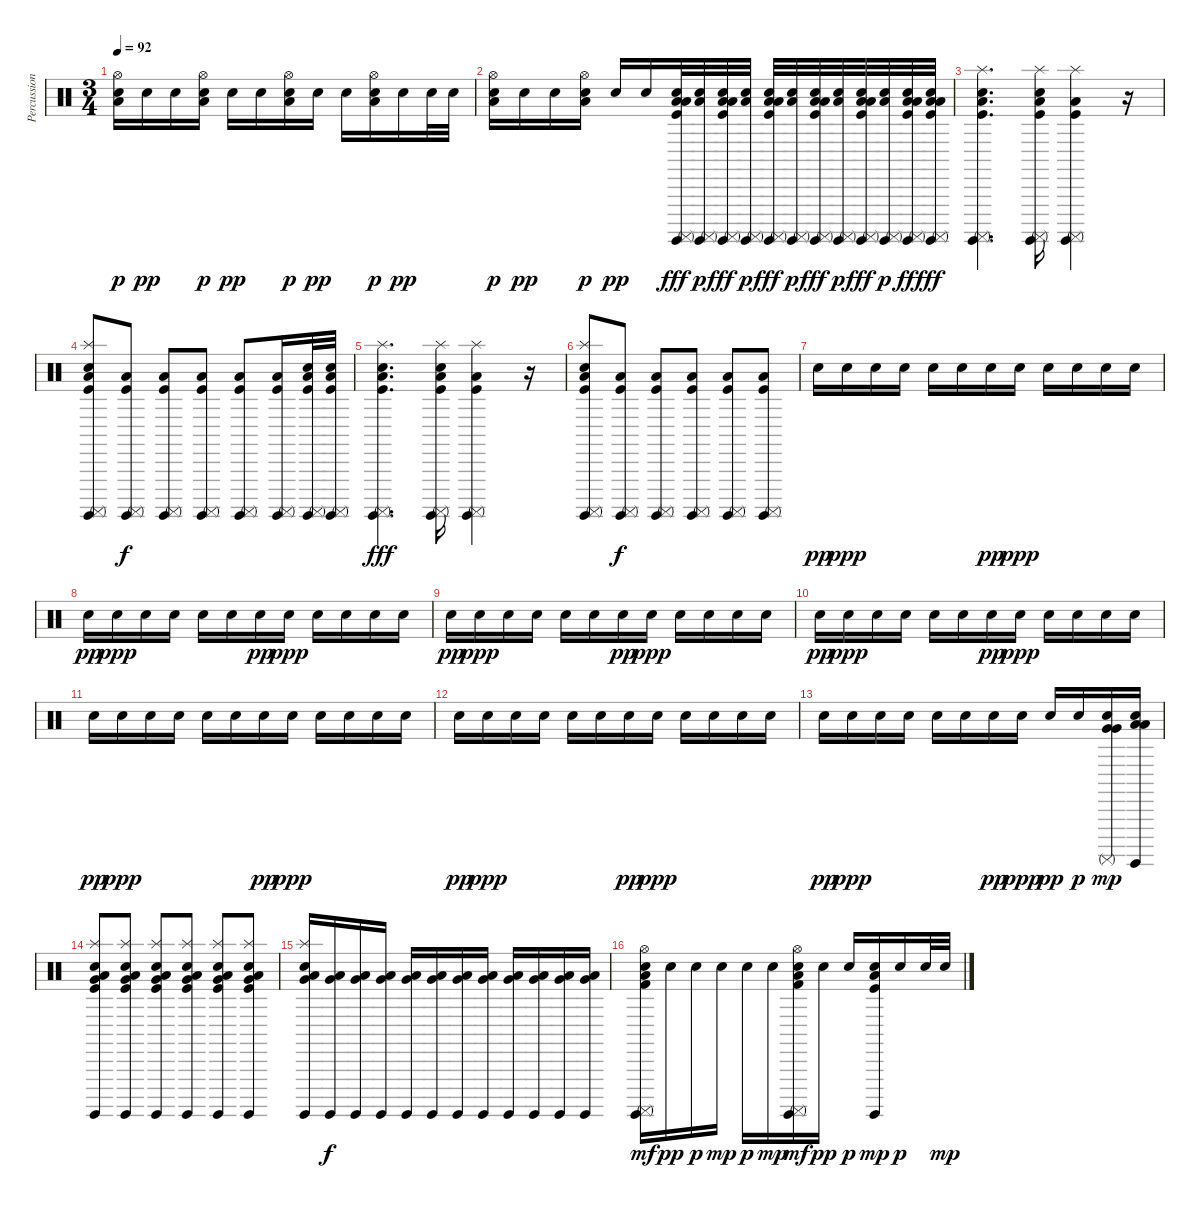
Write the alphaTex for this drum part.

\track ("Percussion" "Percussion") {instrument percussion}
\staff
\articulation defaults
\ts (3 4)
\tempo 92
\clef neutral
\ks c
("Hi-Hat (open)" "Snare (hit) 2" "Low Floor Tom (hit)").16{dy p} "Snare (hit) 2".16{dy pp} "Snare (hit) 2".16 ("Hi-Hat (open)" "Snare (hit) 2" "Low Floor Tom (hit)").16{dy p} "Snare (hit) 2".16{dy pp} "Snare (hit) 2".16 ("Hi-Hat (open)" "Snare (hit) 2" "Low Floor Tom (hit)").16{dy p} "Snare (hit) 2".16{dy pp} "Snare (hit) 2".16 ("Hi-Hat (open)" "Snare (hit) 2" "Low Floor Tom (hit)").16{dy p} "Snare (hit) 2".16{dy pp} "Snare (hit) 2".32 "Snare (hit) 2".32 |
("Hi-Hat (open)" "Snare (hit) 2" "Low Floor Tom (hit)").16{dy p} "Snare (hit) 2".16{dy pp} "Snare (hit) 2".16 ("Hi-Hat (open)" "Snare (hit) 2" "Low Floor Tom (hit)").16{dy p} "Snare (hit) 2".16{dy pp} "Snare (hit) 2".16 ("Low Floor Tom (hit)" "Kick (hit)" "Snare (hit) 2" "Surdo (mute)" "Surdo (hit)" "Low Floor Tom (hit)").32{dy fff volume 8} ("Snare (hit) 2" "Surdo (mute)" "Surdo (hit)" "Low Floor Tom (hit)").32{dy p} ("Low Floor Tom (hit)" "Kick (hit)" "Snare (hit) 2" "Surdo (mute)" "Surdo (hit)" "Low Floor Tom (hit)").32{dy fff} ("Snare (hit) 2" "Surdo (mute)" "Surdo (hit)" "Low Floor Tom (hit)").32{dy p} ("Low Floor Tom (hit)" "Kick (hit)" "Snare (hit) 2" "Surdo (mute)" "Surdo (hit)" "Low Floor Tom (hit)").32{dy fff} ("Snare (hit) 2" "Surdo (mute)" "Surdo (hit)" "Low Floor Tom (hit)").32{dy p} ("Low Floor Tom (hit)" "Kick (hit)" "Snare (hit) 2" "Surdo (mute)" "Surdo (hit)" "Low Floor Tom (hit)").32{dy fff} ("Snare (hit) 2" "Surdo (mute)" "Surdo (hit)" "Low Floor Tom (hit)").32{dy p} ("Low Floor Tom (hit)" "Kick (hit)" "Snare (hit) 2" "Surdo (mute)" "Surdo (hit)" "Low Floor Tom (hit)").32{dy fff} ("Snare (hit) 2" "Surdo (mute)" "Surdo (hit)" "Low Floor Tom (hit)").32{dy p} ("Low Floor Tom (hit)" "Kick (hit)" "Snare (hit) 2" "Surdo (mute)" "Surdo (hit)" "Low Floor Tom (hit)").32{dy ff} ("Low Floor Tom (hit)" "Kick (hit)" "Snare (hit) 2" "Surdo (mute)" "Surdo (hit)" "Low Floor Tom (hit)").32{dy fff} |
("Splash (hit)" "Kick (hit)" "Snare (hit) 2" "Surdo (mute)" "Surdo (hit)" "Low Floor Tom (hit)").4{d} ("Splash (hit)" "Kick (hit)" "Snare (hit) 2" "Surdo (mute)" "Surdo (hit)" "Low Floor Tom (hit)").16 ("Splash (hit)" "Kick (hit)" "Surdo (mute)" "Surdo (hit)" "Low Floor Tom (hit)").4 r.16 |
("Splash (hit)" "Kick (hit)" "Snare (hit) 2" "Surdo (mute)" "Surdo (hit)" "Low Floor Tom (hit)").8 ("Kick (hit)" "Surdo (mute)" "Surdo (hit)" "Low Floor Tom (hit)").8{dy f} ("Kick (hit)" "Surdo (mute)" "Surdo (hit)" "Low Floor Tom (hit)").8 ("Kick (hit)" "Surdo (mute)" "Surdo (hit)" "Low Floor Tom (hit)").8 ("Kick (hit)" "Surdo (mute)" "Surdo (hit)" "Low Floor Tom (hit)").8 ("Kick (hit)" "Surdo (mute)" "Surdo (hit)" "Low Floor Tom (hit)").16 ("Kick (hit)" "Snare (hit) 2" "Surdo (mute)" "Surdo (hit)" "Low Floor Tom (hit)").32 ("Kick (hit)" "Snare (hit) 2" "Surdo (mute)" "Surdo (hit)" "Low Floor Tom (hit)").32 |
("Splash (hit)" "Kick (hit)" "Snare (hit) 2" "Surdo (mute)" "Surdo (hit)" "Low Floor Tom (hit)").4{d dy fff} ("Splash (hit)" "Kick (hit)" "Snare (hit) 2" "Surdo (mute)" "Surdo (hit)" "Low Floor Tom (hit)").16 ("Splash (hit)" "Kick (hit)" "Surdo (mute)" "Surdo (hit)" "Low Floor Tom (hit)").4 r.16 |
("Splash (hit)" "Kick (hit)" "Snare (hit) 2" "Surdo (mute)" "Surdo (hit)" "Low Floor Tom (hit)").8 ("Kick (hit)" "Surdo (mute)" "Surdo (hit)" "Low Floor Tom (hit)").8{dy f} ("Kick (hit)" "Surdo (mute)" "Surdo (hit)" "Low Floor Tom (hit)").8 ("Kick (hit)" "Surdo (mute)" "Surdo (hit)" "Low Floor Tom (hit)").8 ("Kick (hit)" "Surdo (mute)" "Surdo (hit)" "Low Floor Tom (hit)").8 ("Kick (hit)" "Surdo (mute)" "Surdo (hit)" "Low Floor Tom (hit)").8 |
"Snare (hit) 2".16{dy pp volume 4} "Snare (hit) 2".16{dy ppp} "Snare (hit) 2".16 "Snare (hit) 2".16 "Snare (hit) 2".16 "Snare (hit) 2".16 "Snare (hit) 2".16{dy pp} "Snare (hit) 2".16{dy ppp} "Snare (hit) 2".16 "Snare (hit) 2".16 "Snare (hit) 2".16 "Snare (hit) 2".16 |
"Snare (hit) 2".16{dy pp volume 9} "Snare (hit) 2".16{dy ppp} "Snare (hit) 2".16 "Snare (hit) 2".16 "Snare (hit) 2".16 "Snare (hit) 2".16 "Snare (hit) 2".16{dy pp} "Snare (hit) 2".16{dy ppp} "Snare (hit) 2".16 "Snare (hit) 2".16 "Snare (hit) 2".16 "Snare (hit) 2".16 |
"Snare (hit) 2".16{dy pp} "Snare (hit) 2".16{dy ppp} "Snare (hit) 2".16 "Snare (hit) 2".16 "Snare (hit) 2".16 "Snare (hit) 2".16 "Snare (hit) 2".16{dy pp} "Snare (hit) 2".16{dy ppp} "Snare (hit) 2".16 "Snare (hit) 2".16 "Snare (hit) 2".16 "Snare (hit) 2".16 |
"Snare (hit) 2".16{dy pp} "Snare (hit) 2".16{dy ppp} "Snare (hit) 2".16 "Snare (hit) 2".16 "Snare (hit) 2".16 "Snare (hit) 2".16 "Snare (hit) 2".16{dy pp} "Snare (hit) 2".16{dy ppp} "Snare (hit) 2".16 "Snare (hit) 2".16 "Snare (hit) 2".16 "Snare (hit) 2".16 |
"Snare (hit) 2".16{dy pp} "Snare (hit) 2".16{dy ppp} "Snare (hit) 2".16 "Snare (hit) 2".16 "Snare (hit) 2".16 "Snare (hit) 2".16 "Snare (hit) 2".16{dy pp} "Snare (hit) 2".16{dy ppp} "Snare (hit) 2".16 "Snare (hit) 2".16 "Snare (hit) 2".16 "Snare (hit) 2".16 |
"Snare (hit) 2".16{dy pp} "Snare (hit) 2".16{dy ppp} "Snare (hit) 2".16 "Snare (hit) 2".16 "Snare (hit) 2".16 "Snare (hit) 2".16 "Snare (hit) 2".16{dy pp} "Snare (hit) 2".16{dy ppp} "Snare (hit) 2".16 "Snare (hit) 2".16 "Snare (hit) 2".16 "Snare (hit) 2".16 |
"Snare (hit) 2".16{dy pp} "Snare (hit) 2".16{dy ppp} "Snare (hit) 2".16 "Snare (hit) 2".16 "Snare (hit) 2".16 "Snare (hit) 2".16 "Snare (hit) 2".16{dy pp} "Snare (hit) 2".16{dy ppp} "Snare (hit) 2".16{dy pp} "Snare (hit) 2".16{dy p} ("Surdo (mute)" "Snare (hit) 2" "Very Low Tom (hit)" "Very Low Tom (hit)").16{dy mp} ("Surdo (hit)" "Snare (hit) 2" "Low Floor Tom (hit)" "Low Floor Tom (hit)").16 |
("Splash (hit)" "Snare (hit) 2" "Kick (hit)" "Surdo (hit)" "Very Low Tom (hit)" "Low Floor Tom (hit)").8{volume 6} ("Splash (hit)" "Snare (hit) 2" "Kick (hit)" "Surdo (hit)" "Very Low Tom (hit)" "Low Floor Tom (hit)").8 ("Splash (hit)" "Snare (hit) 2" "Kick (hit)" "Surdo (hit)" "Very Low Tom (hit)" "Low Floor Tom (hit)").8 ("Splash (hit)" "Snare (hit) 2" "Kick (hit)" "Surdo (hit)" "Very Low Tom (hit)" "Low Floor Tom (hit)").8 ("Splash (hit)" "Snare (hit) 2" "Kick (hit)" "Surdo (hit)" "Very Low Tom (hit)" "Low Floor Tom (hit)").8 ("Splash (hit)" "Snare (hit) 2" "Kick (hit)" "Surdo (hit)" "Very Low Tom (hit)" "Low Floor Tom (hit)").8 |
("Splash (hit)" "Snare (hit) 2" "Surdo (hit)" "Very Low Tom (hit)" "Low Floor Tom (hit)").16 ("Surdo (hit)" "Very Low Tom (hit)" "Low Floor Tom (hit)").16{dy f} ("Surdo (hit)" "Very Low Tom (hit)" "Low Floor Tom (hit)").16 ("Surdo (hit)" "Very Low Tom (hit)" "Low Floor Tom (hit)").16 ("Surdo (hit)" "Very Low Tom (hit)" "Low Floor Tom (hit)").16 ("Surdo (hit)" "Very Low Tom (hit)" "Low Floor Tom (hit)").16 ("Surdo (hit)" "Very Low Tom (hit)" "Low Floor Tom (hit)").16 ("Surdo (hit)" "Very Low Tom (hit)" "Low Floor Tom (hit)").16 ("Surdo (hit)" "Very Low Tom (hit)" "Low Floor Tom (hit)").16 ("Surdo (hit)" "Very Low Tom (hit)" "Low Floor Tom (hit)").16 ("Surdo (hit)" "Very Low Tom (hit)" "Low Floor Tom (hit)").16 ("Surdo (hit)" "Very Low Tom (hit)" "Low Floor Tom (hit)").16 |
("Hi-Hat (open)" "Surdo (mute)" "Snare (hit) 2" "Surdo (hit)" "Low Floor Tom (hit)" "Kick (hit) 2").16{dy mf volume 5} "Snare (hit) 2".16{dy pp} "Snare (hit) 2".16{dy p} "Snare (hit) 2".16{dy mp} "Snare (hit) 2".16{dy p} "Snare (hit) 2".16{dy mp} ("Hi-Hat (open)" "Surdo (mute)" "Snare (hit) 2" "Surdo (hit)" "Low Floor Tom (hit)" "Kick (hit) 2").16{dy mf} "Snare (hit) 2".16{dy pp} "Snare (hit) 2".16{dy p} ("Snare (hit) 2" "Surdo (hit)" "Low Floor Tom (hit)" "Kick (hit)").16{dy mp} "Snare (hit) 2".16{dy p} "Snare (hit) 2".32 "Snare (hit) 2".32{dy mp}
